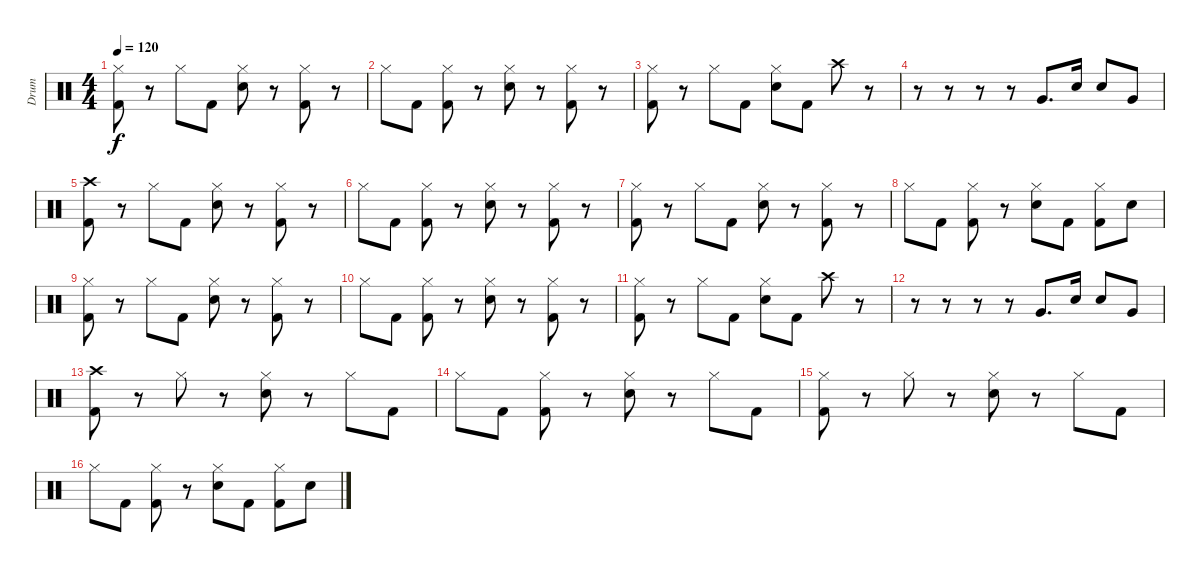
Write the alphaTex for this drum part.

\track ("Drum" "Drum") {instrument percussion}
\staff {score}
\articulation defaults
\ts (4 4)
\tempo 120
\clef neutral
\ks c
("Hi-Hat (closed)" "Kick (hit) 2").8{dy f} r.8 "Hi-Hat (closed)".8 "Kick (hit) 2".8 ("Hi-Hat (closed)" "Electric Snare (hit)").8 r.8 ("Hi-Hat (closed)" "Kick (hit) 2").8 r.8 |
"Hi-Hat (closed)".8 "Kick (hit) 2".8 ("Hi-Hat (closed)" "Kick (hit) 2").8 r.8 ("Hi-Hat (closed)" "Electric Snare (hit)").8 r.8 ("Hi-Hat (closed)" "Kick (hit) 2").8 r.8 |
("Hi-Hat (closed)" "Kick (hit) 2").8 r.8 "Hi-Hat (closed)".8 "Kick (hit) 2".8 ("Hi-Hat (closed)" "Electric Snare (hit)").8 "Kick (hit) 2".8 "Crash high (hit)".8 r.8 |
r.8 r.8 r.8 r.8 "Very Low Tom (hit)".8{d} "Electric Snare (hit)".16 "Electric Snare (hit)".8 "Very Low Tom (hit)".8 |
("Crash high (hit)" "Kick (hit) 2").8 r.8 "Hi-Hat (closed)".8 "Kick (hit) 2".8 ("Hi-Hat (closed)" "Electric Snare (hit)").8 r.8 ("Hi-Hat (closed)" "Kick (hit) 2").8 r.8 |
"Hi-Hat (closed)".8 "Kick (hit) 2".8 ("Hi-Hat (closed)" "Kick (hit) 2").8 r.8 ("Hi-Hat (closed)" "Electric Snare (hit)").8 r.8 ("Hi-Hat (closed)" "Kick (hit) 2").8 r.8 |
("Hi-Hat (closed)" "Kick (hit) 2").8 r.8 "Hi-Hat (closed)".8 "Kick (hit) 2".8 ("Hi-Hat (closed)" "Electric Snare (hit)").8 r.8 ("Hi-Hat (closed)" "Kick (hit) 2").8 r.8 |
"Hi-Hat (closed)".8 "Kick (hit) 2".8 ("Hi-Hat (closed)" "Kick (hit) 2").8 r.8 ("Hi-Hat (closed)" "Electric Snare (hit)").8 "Kick (hit) 2".8 ("Hi-Hat (closed)" "Kick (hit) 2").8 "Electric Snare (hit)".8 |
("Hi-Hat (closed)" "Kick (hit) 2").8 r.8 "Hi-Hat (closed)".8 "Kick (hit) 2".8 ("Hi-Hat (closed)" "Electric Snare (hit)").8 r.8 ("Hi-Hat (closed)" "Kick (hit) 2").8 r.8 |
"Hi-Hat (closed)".8 "Kick (hit) 2".8 ("Hi-Hat (closed)" "Kick (hit) 2").8 r.8 ("Hi-Hat (closed)" "Electric Snare (hit)").8 r.8 ("Hi-Hat (closed)" "Kick (hit) 2").8 r.8 |
("Hi-Hat (closed)" "Kick (hit) 2").8 r.8 "Hi-Hat (closed)".8 "Kick (hit) 2".8 ("Hi-Hat (closed)" "Electric Snare (hit)").8 "Kick (hit) 2".8 "Crash high (hit)".8 r.8 |
r.8 r.8 r.8 r.8 "Very Low Tom (hit)".8{d} "Electric Snare (hit)".16 "Electric Snare (hit)".8 "Very Low Tom (hit)".8 |
("Crash high (hit)" "Kick (hit) 2").8 r.8 "Hi-Hat (closed)".8 r.8 ("Hi-Hat (closed)" "Electric Snare (hit)").8 r.8 "Hi-Hat (closed)".8 "Kick (hit) 2".8 |
"Hi-Hat (closed)".8 "Kick (hit) 2".8 ("Hi-Hat (closed)" "Kick (hit) 2").8 r.8 ("Hi-Hat (closed)" "Electric Snare (hit)").8 r.8 "Hi-Hat (closed)".8 "Kick (hit) 2".8 |
("Hi-Hat (closed)" "Kick (hit) 2").8 r.8 "Hi-Hat (closed)".8 r.8 ("Hi-Hat (closed)" "Electric Snare (hit)").8 r.8 "Hi-Hat (closed)".8 "Kick (hit) 2".8 |
"Hi-Hat (closed)".8 "Kick (hit) 2".8 ("Hi-Hat (closed)" "Kick (hit) 2").8 r.8 ("Hi-Hat (closed)" "Electric Snare (hit)").8 "Kick (hit) 2".8 ("Hi-Hat (closed)" "Kick (hit) 2").8 "Electric Snare (hit)".8
